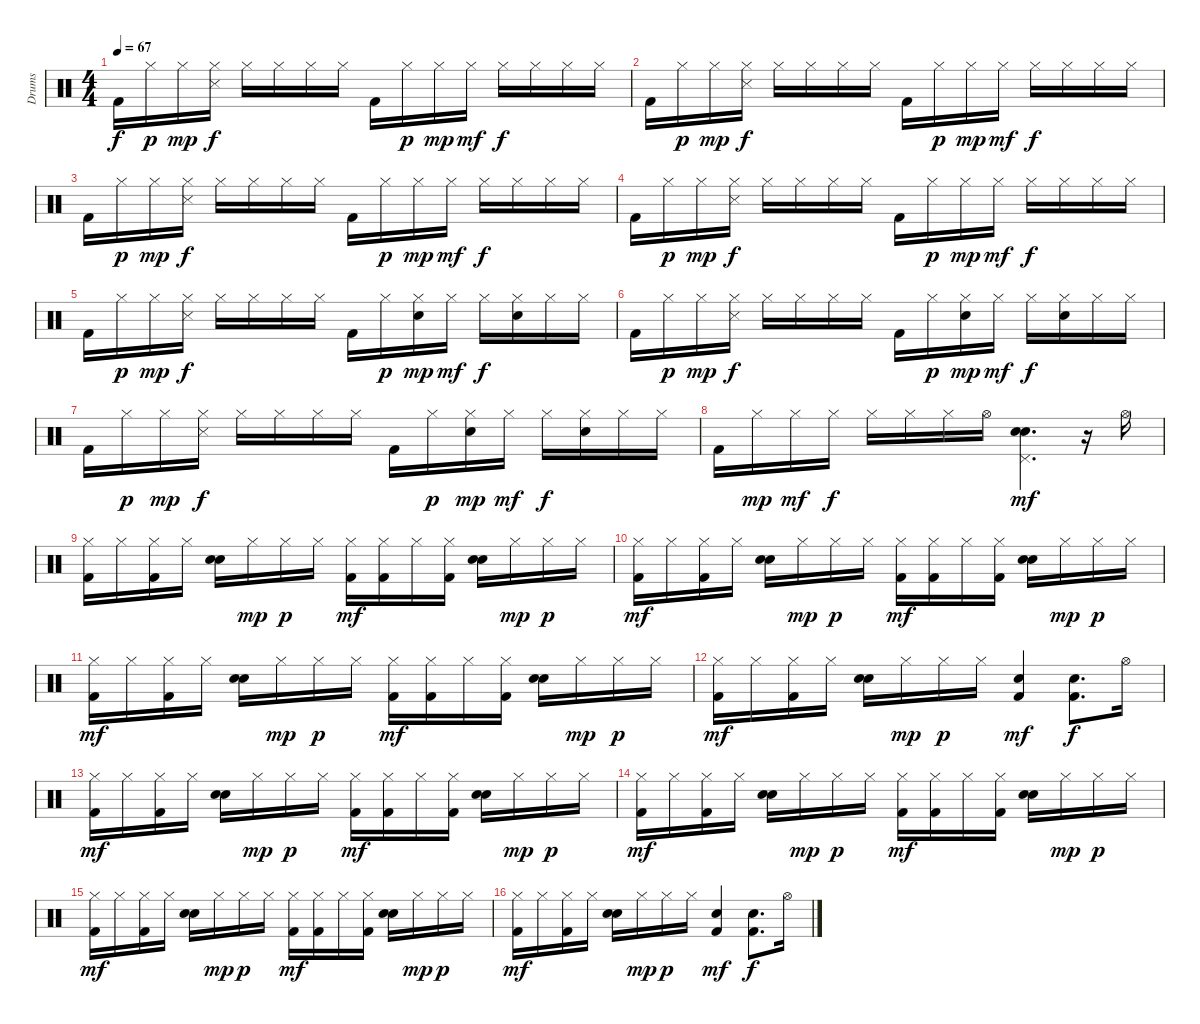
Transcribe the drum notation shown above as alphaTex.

\track ("Drums" "Drums") {instrument percussion}
\staff {score}
\articulation defaults
\ts (4 4)
\tempo 67
\clef neutral
\ks c "Kick (hit) 2".16{dy f} "Hi-Hat (closed)".16{dy p} "Hi-Hat (closed)".16{dy mp}
("Hi-Hat (closed)" "Snare (side stick) 3").16{dy f} "Hi-Hat (closed)".16 "Hi-Hat (closed)".16 "Hi-Hat (closed)".16 "Hi-Hat (closed)".16 "Kick (hit) 2".16 "Hi-Hat (closed)".16{dy p} "Hi-Hat (closed)".16{dy mp} "Hi-Hat (closed)".16{dy mf} "Hi-Hat (closed)".16{dy f} "Hi-Hat (closed)".16 "Hi-Hat (closed)".16 "Hi-Hat (closed)".16 |
"Kick (hit) 2".16 "Hi-Hat (closed)".16{dy p} "Hi-Hat (closed)".16{dy mp} ("Hi-Hat (closed)" "Snare (side stick) 3").16{dy f} "Hi-Hat (closed)".16 "Hi-Hat (closed)".16 "Hi-Hat (closed)".16 "Hi-Hat (closed)".16 "Kick (hit) 2".16 "Hi-Hat (closed)".16{dy p} "Hi-Hat (closed)".16{dy mp} "Hi-Hat (closed)".16{dy mf} "Hi-Hat (closed)".16{dy f} "Hi-Hat (closed)".16 "Hi-Hat (closed)".16 "Hi-Hat (closed)".16 |
"Kick (hit) 2".16 "Hi-Hat (closed)".16{dy p} "Hi-Hat (closed)".16{dy mp} ("Hi-Hat (closed)" "Snare (side stick) 3").16{dy f} "Hi-Hat (closed)".16 "Hi-Hat (closed)".16 "Hi-Hat (closed)".16 "Hi-Hat (closed)".16 "Kick (hit) 2".16 "Hi-Hat (closed)".16{dy p} "Hi-Hat (closed)".16{dy mp} "Hi-Hat (closed)".16{dy mf} "Hi-Hat (closed)".16{dy f} "Hi-Hat (closed)".16 "Hi-Hat (closed)".16 "Hi-Hat (closed)".16 |
"Kick (hit) 2".16 "Hi-Hat (closed)".16{dy p} "Hi-Hat (closed)".16{dy mp} ("Hi-Hat (closed)" "Snare (side stick) 3").16{dy f} "Hi-Hat (closed)".16 "Hi-Hat (closed)".16 "Hi-Hat (closed)".16 "Hi-Hat (closed)".16 "Kick (hit) 2".16 "Hi-Hat (closed)".16{dy p} "Hi-Hat (closed)".16{dy mp} "Hi-Hat (closed)".16{dy mf} "Hi-Hat (closed)".16{dy f} "Hi-Hat (closed)".16 "Hi-Hat (closed)".16 "Hi-Hat (closed)".16 |
"Kick (hit) 2".16 "Hi-Hat (closed)".16{dy p} "Hi-Hat (closed)".16{dy mp} ("Hi-Hat (closed)" "Snare (side stick) 3").16{dy f} "Hi-Hat (closed)".16 "Hi-Hat (closed)".16 "Hi-Hat (closed)".16 "Hi-Hat (closed)".16 "Kick (hit) 2".16 "Hi-Hat (closed)".16{dy p} ("Hi-Hat (closed)" "Hand Clap (hit)").16{dy mp} "Hi-Hat (closed)".16{dy mf} "Hi-Hat (closed)".16{dy f} ("Hi-Hat (closed)" "Hand Clap (hit)").16 "Hi-Hat (closed)".16 "Hi-Hat (closed)".16 |
"Kick (hit) 2".16 "Hi-Hat (closed)".16{dy p} "Hi-Hat (closed)".16{dy mp} ("Hi-Hat (closed)" "Snare (side stick) 3").16{dy f} "Hi-Hat (closed)".16 "Hi-Hat (closed)".16 "Hi-Hat (closed)".16 "Hi-Hat (closed)".16 "Kick (hit) 2".16 "Hi-Hat (closed)".16{dy p} ("Hi-Hat (closed)" "Hand Clap (hit)").16{dy mp} "Hi-Hat (closed)".16{dy mf} "Hi-Hat (closed)".16{dy f} ("Hi-Hat (closed)" "Hand Clap (hit)").16 "Hi-Hat (closed)".16 "Hi-Hat (closed)".16 |
"Kick (hit) 2".16 "Hi-Hat (closed)".16{dy p} "Hi-Hat (closed)".16{dy mp} ("Hi-Hat (closed)" "Snare (side stick) 3").16{dy f} "Hi-Hat (closed)".16 "Hi-Hat (closed)".16 "Hi-Hat (closed)".16 "Hi-Hat (closed)".16 "Kick (hit) 2".16 "Hi-Hat (closed)".16{dy p} ("Hi-Hat (closed)" "Hand Clap (hit)").16{dy mp} "Hi-Hat (closed)".16{dy mf} "Hi-Hat (closed)".16{dy f} ("Hi-Hat (closed)" "Hand Clap (hit)").16 "Hi-Hat (closed)".16 "Hi-Hat (closed)".16 |
"Kick (hit) 2".16 "Hi-Hat (closed)".16{dy mp} "Hi-Hat (closed)".16{dy mf} "Hi-Hat (closed)".16{dy f} "Hi-Hat (closed)".16 "Hi-Hat (closed)".16 "Hi-Hat (closed)".16 "Hi-Hat (open)".16 ("Pedal Hi-Hat (hit)" "Hand Clap (hit)" "Snare (hit) 2").4{d dy mf} r.16 "Hi-Hat (open)".16 |
("Hi-Hat (closed)" "Kick (hit) 2").16 "Hi-Hat (closed)".16 ("Hi-Hat (closed)" "Kick (hit) 2").16 "Hi-Hat (closed)".16 ("Hand Clap (hit)" "Snare (hit) 2").16 "Hi-Hat (closed)".16{dy mp} "Hi-Hat (closed)".16{dy p} "Hi-Hat (closed)".16 ("Hi-Hat (closed)" "Kick (hit) 2").16{dy mf} ("Hi-Hat (closed)" "Kick (hit) 2").16 "Hi-Hat (closed)".16 ("Hi-Hat (closed)" "Kick (hit) 2").16 ("Hand Clap (hit)" "Snare (hit) 2").16 "Hi-Hat (closed)".16{dy mp} "Hi-Hat (closed)".16{dy p} "Hi-Hat (closed)".16 |
("Hi-Hat (closed)" "Kick (hit) 2").16{dy mf} "Hi-Hat (closed)".16 ("Hi-Hat (closed)" "Kick (hit) 2").16 "Hi-Hat (closed)".16 ("Hand Clap (hit)" "Snare (hit) 2").16 "Hi-Hat (closed)".16{dy mp} "Hi-Hat (closed)".16{dy p} "Hi-Hat (closed)".16 ("Hi-Hat (closed)" "Kick (hit) 2").16{dy mf} ("Hi-Hat (closed)" "Kick (hit) 2").16 "Hi-Hat (closed)".16 ("Hi-Hat (closed)" "Kick (hit) 2").16 ("Hand Clap (hit)" "Snare (hit) 2").16 "Hi-Hat (closed)".16{dy mp} "Hi-Hat (closed)".16{dy p} "Hi-Hat (closed)".16 |
("Hi-Hat (closed)" "Kick (hit) 2").16{dy mf} "Hi-Hat (closed)".16 ("Hi-Hat (closed)" "Kick (hit) 2").16 "Hi-Hat (closed)".16 ("Hand Clap (hit)" "Snare (hit) 2").16 "Hi-Hat (closed)".16{dy mp} "Hi-Hat (closed)".16{dy p} "Hi-Hat (closed)".16 ("Hi-Hat (closed)" "Kick (hit) 2").16{dy mf} ("Hi-Hat (closed)" "Kick (hit) 2").16 "Hi-Hat (closed)".16 ("Hi-Hat (closed)" "Kick (hit) 2").16 ("Hand Clap (hit)" "Snare (hit) 2").16 "Hi-Hat (closed)".16{dy mp} "Hi-Hat (closed)".16{dy p} "Hi-Hat (closed)".16 |
("Hi-Hat (closed)" "Kick (hit) 2").16{dy mf} "Hi-Hat (closed)".16 ("Hi-Hat (closed)" "Kick (hit) 2").16 "Hi-Hat (closed)".16 ("Hand Clap (hit)" "Snare (hit) 2").16 "Hi-Hat (closed)".16{dy mp} "Hi-Hat (closed)".16{dy p} "Hi-Hat (closed)".16 ("Snare (hit) 2" "Kick (hit) 2").4{dy mf} ("Snare (hit) 2" "Kick (hit) 2").8{d dy f} "Hi-Hat (open)".16 |
("Hi-Hat (closed)" "Kick (hit) 2").16{dy mf} "Hi-Hat (closed)".16 ("Hi-Hat (closed)" "Kick (hit) 2").16 "Hi-Hat (closed)".16 ("Hand Clap (hit)" "Snare (hit) 2").16 "Hi-Hat (closed)".16{dy mp} "Hi-Hat (closed)".16{dy p} "Hi-Hat (closed)".16 ("Hi-Hat (closed)" "Kick (hit) 2").16{dy mf} ("Hi-Hat (closed)" "Kick (hit) 2").16 "Hi-Hat (closed)".16 ("Hi-Hat (closed)" "Kick (hit) 2").16 ("Hand Clap (hit)" "Snare (hit) 2").16 "Hi-Hat (closed)".16{dy mp} "Hi-Hat (closed)".16{dy p} "Hi-Hat (closed)".16 |
("Hi-Hat (closed)" "Kick (hit) 2").16{dy mf} "Hi-Hat (closed)".16 ("Hi-Hat (closed)" "Kick (hit) 2").16 "Hi-Hat (closed)".16 ("Hand Clap (hit)" "Snare (hit) 2").16 "Hi-Hat (closed)".16{dy mp} "Hi-Hat (closed)".16{dy p} "Hi-Hat (closed)".16 ("Hi-Hat (closed)" "Kick (hit) 2").16{dy mf} ("Hi-Hat (closed)" "Kick (hit) 2").16 "Hi-Hat (closed)".16 ("Hi-Hat (closed)" "Kick (hit) 2").16 ("Hand Clap (hit)" "Snare (hit) 2").16 "Hi-Hat (closed)".16{dy mp} "Hi-Hat (closed)".16{dy p} "Hi-Hat (closed)".16 |
("Hi-Hat (closed)" "Kick (hit) 2").16{dy mf} "Hi-Hat (closed)".16 ("Hi-Hat (closed)" "Kick (hit) 2").16 "Hi-Hat (closed)".16 ("Hand Clap (hit)" "Snare (hit) 2").16 "Hi-Hat (closed)".16{dy mp} "Hi-Hat (closed)".16{dy p} "Hi-Hat (closed)".16 ("Hi-Hat (closed)" "Kick (hit) 2").16{dy mf} ("Hi-Hat (closed)" "Kick (hit) 2").16 "Hi-Hat (closed)".16 ("Hi-Hat (closed)" "Kick (hit) 2").16 ("Hand Clap (hit)" "Snare (hit) 2").16 "Hi-Hat (closed)".16{dy mp} "Hi-Hat (closed)".16{dy p} "Hi-Hat (closed)".16 |
("Hi-Hat (closed)" "Kick (hit) 2").16{dy mf} "Hi-Hat (closed)".16 ("Hi-Hat (closed)" "Kick (hit) 2").16 "Hi-Hat (closed)".16 ("Hand Clap (hit)" "Snare (hit) 2").16 "Hi-Hat (closed)".16{dy mp} "Hi-Hat (closed)".16{dy p} "Hi-Hat (closed)".16 ("Snare (hit) 2" "Kick (hit) 2").4{dy mf} ("Snare (hit) 2" "Kick (hit) 2").8{d dy f} "Hi-Hat (open)".16
